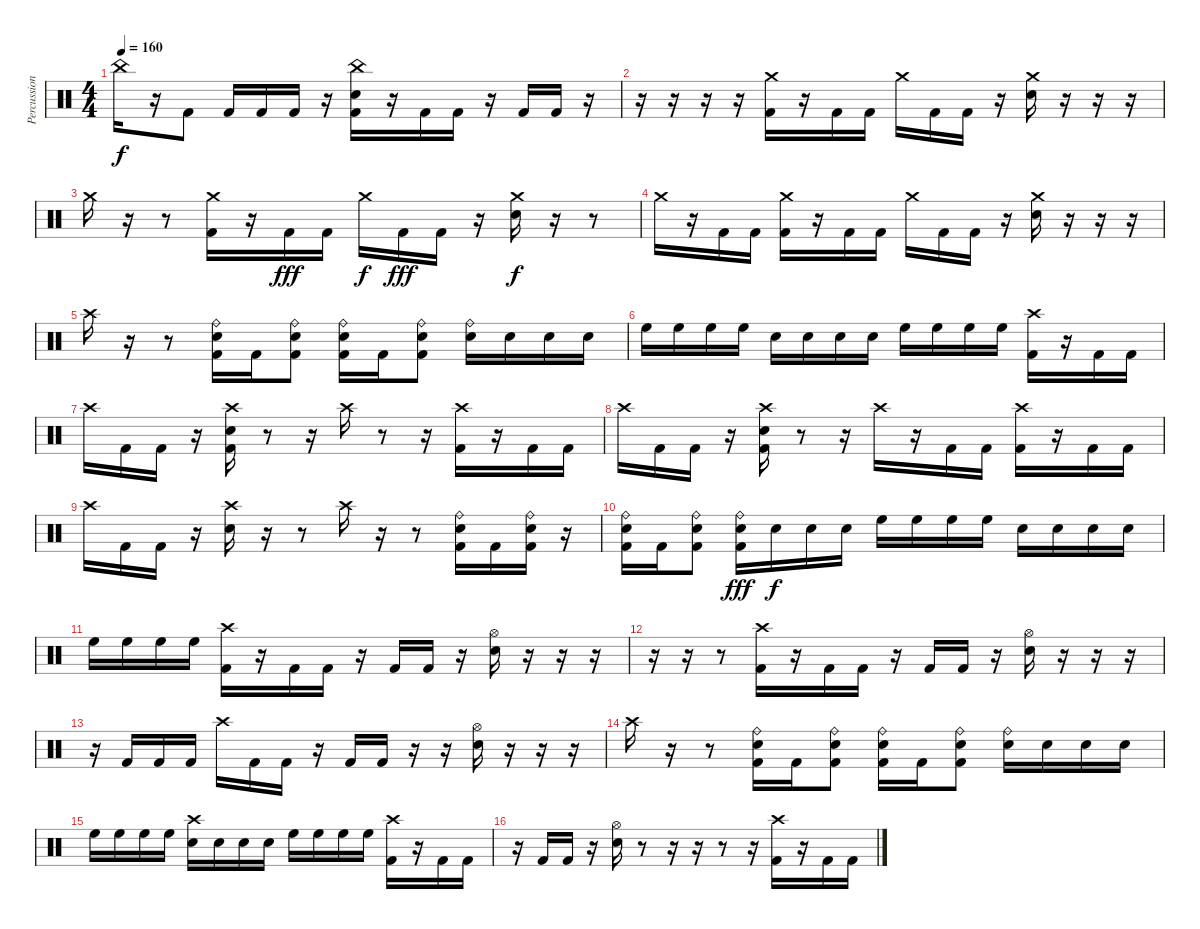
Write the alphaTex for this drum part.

\track ("Percussion" "Percussion") {instrument percussion}
\staff {score}
\articulation defaults
\ts (4 4)
\tempo 160
\clef neutral
\ks c "China (hit)".16{dy f}
r.16 "Kick (hit) 2".8 "Kick (hit) 2".16 "Kick (hit) 2".16 "Kick (hit) 2".16 r.16 ("China (hit)" "Snare (hit) 2" "Kick (hit) 2").16 r.16 "Kick (hit) 2".16 "Kick (hit) 2".16 r.16 "Kick (hit) 2".16 "Kick (hit) 2".16 r.16 |
r.16 r.16 r.16 r.16 ("Crash medium (hit)" "Kick (hit) 2").16 r.16 "Kick (hit) 2".16 "Kick (hit) 2".16 "Crash medium (hit)".16 "Kick (hit) 2".16 "Kick (hit) 2".16 r.16 ("Crash medium (hit)" "Snare (hit) 2").16 r.16 r.16 r.16 |
"Crash medium (hit)".16 r.16 r.8 ("Crash medium (hit)" "Kick (hit) 2").16 r.16 "Kick (hit) 2".16{dy fff} "Kick (hit) 2".16 "Crash medium (hit)".16{dy f} "Kick (hit) 2".16{dy fff} "Kick (hit) 2".16 r.16 ("Crash medium (hit)" "Snare (hit) 2").16{dy f} r.16 r.8 |
"Crash medium (hit)".16 r.16 "Kick (hit) 2".16 "Kick (hit) 2".16 ("Crash medium (hit)" "Kick (hit) 2").16 r.16 "Kick (hit) 2".16 "Kick (hit) 2".16 "Crash medium (hit)".16 "Kick (hit) 2".16 "Kick (hit) 2".16 r.16 ("Crash medium (hit)" "Snare (hit) 2").16 r.16 r.16 r.16 |
"Crash high (hit)".16 r.16 r.8 ("Ride (bell)" "Snare (hit) 2" "Kick (hit) 2").16 "Kick (hit) 2".16 ("Ride (bell)" "Snare (hit) 2" "Kick (hit) 2").8 ("Ride (bell)" "Snare (hit) 2" "Kick (hit) 2").16 "Kick (hit) 2".16 ("Ride (bell)" "Snare (hit) 2" "Kick (hit) 2").8 ("Ride (bell)" "Snare (hit) 2").16 "Snare (hit) 2".16 "Snare (hit) 2".16 "Snare (hit) 2".16 |
"High Floor Tom (hit)".16 "High Floor Tom (hit)".16 "High Floor Tom (hit)".16 "High Floor Tom (hit)".16 "Snare (hit) 2".16 "Snare (hit) 2".16 "Snare (hit) 2".16 "Snare (hit) 2".16 "High Floor Tom (hit)".16 "High Floor Tom (hit)".16 "High Floor Tom (hit)".16 "High Floor Tom (hit)".16 ("Crash high (hit)" "Kick (hit) 2").16 r.16 "Kick (hit) 2".16 "Kick (hit) 2".16 |
"Crash high (hit)".16 "Kick (hit) 2".16 "Kick (hit) 2".16 r.16 ("Crash high (hit)" "Snare (hit) 2" "Kick (hit) 2").16 r.8 r.16 "Crash high (hit)".16 r.8 r.16 ("Crash high (hit)" "Kick (hit) 2").16 r.16 "Kick (hit) 2".16 "Kick (hit) 2".16 |
"Crash high (hit)".16 "Kick (hit) 2".16 "Kick (hit) 2".16 r.16 ("Crash high (hit)" "Snare (hit) 2" "Kick (hit) 2").16 r.8 r.16 "Crash high (hit)".16 r.16 "Kick (hit) 2".16 "Kick (hit) 2".16 ("Crash high (hit)" "Kick (hit) 2").16 r.16 "Kick (hit) 2".16 "Kick (hit) 2".16 |
"Crash high (hit)".16 "Kick (hit) 2".16 "Kick (hit) 2".16 r.16 ("Crash high (hit)" "Snare (hit) 2").16 r.16 r.8 "Crash high (hit)".16 r.16 r.8 ("Ride (bell)" "Snare (hit) 2" "Kick (hit) 2").16 "Kick (hit) 2".16 ("Ride (bell)" "Snare (hit) 2" "Kick (hit) 2").16 r.16 |
("Ride (bell)" "Snare (hit) 2" "Kick (hit) 2").16 "Kick (hit) 2".16 ("Ride (bell)" "Snare (hit) 2" "Kick (hit) 2").8 ("Ride (bell)" "Snare (hit) 2" "Kick (hit) 2").16{dy fff} "Snare (hit) 2".16{dy f} "Snare (hit) 2".16 "Snare (hit) 2".16 "High Floor Tom (hit)".16 "High Floor Tom (hit)".16 "High Floor Tom (hit)".16 "High Floor Tom (hit)".16 "Snare (hit) 2".16 "Snare (hit) 2".16 "Snare (hit) 2".16 "Snare (hit) 2".16 |
"High Floor Tom (hit)".16 "High Floor Tom (hit)".16 "High Floor Tom (hit)".16 "High Floor Tom (hit)".16 ("Crash high (hit)" "Kick (hit) 2").16 r.16 "Kick (hit) 2".16 "Kick (hit) 2".16 r.16 "Kick (hit) 2".16 "Kick (hit) 2".16 r.16 ("Hi-Hat (open)" "Snare (hit) 2").16 r.16 r.16 r.16 |
r.16 r.16 r.8 ("Crash high (hit)" "Kick (hit) 2").16 r.16 "Kick (hit) 2".16 "Kick (hit) 2".16 r.16 "Kick (hit) 2".16 "Kick (hit) 2".16 r.16 ("Hi-Hat (open)" "Snare (hit) 2").16 r.16 r.16 r.16 |
r.16 "Kick (hit) 2".16 "Kick (hit) 2".16 "Kick (hit) 2".16 "Crash high (hit)".16 "Kick (hit) 2".16 "Kick (hit) 2".16 r.16 "Kick (hit) 2".16 "Kick (hit) 2".16 r.16 r.16 ("Hi-Hat (open)" "Snare (hit) 2").16 r.16 r.16 r.16 |
"Crash high (hit)".16 r.16 r.8 ("Ride (bell)" "Snare (hit) 2" "Kick (hit) 2").16 "Kick (hit) 2".16 ("Ride (bell)" "Snare (hit) 2" "Kick (hit) 2").8 ("Ride (bell)" "Snare (hit) 2" "Kick (hit) 2").16 "Kick (hit) 2".16 ("Ride (bell)" "Snare (hit) 2" "Kick (hit) 2").8 ("Ride (bell)" "Snare (hit) 2").16 "Snare (hit) 2".16 "Snare (hit) 2".16 "Snare (hit) 2".16 |
"High Floor Tom (hit)".16 "High Floor Tom (hit)".16 "High Floor Tom (hit)".16 "High Floor Tom (hit)".16 ("Crash high (hit)" "Snare (hit) 2").16 "Snare (hit) 2".16 "Snare (hit) 2".16 "Snare (hit) 2".16 "High Floor Tom (hit)".16 "High Floor Tom (hit)".16 "High Floor Tom (hit)".16 "High Floor Tom (hit)".16 ("Crash high (hit)" "Kick (hit) 2").16 r.16 "Kick (hit) 2".16 "Kick (hit) 2".16 |
r.16 "Kick (hit) 2".16 "Kick (hit) 2".16 r.16 ("Hi-Hat (open)" "Snare (hit) 2").16 r.8 r.16 r.16 r.8 r.16 ("Crash high (hit)" "Kick (hit) 2").16 r.16 "Kick (hit) 2".16 "Kick (hit) 2".16
